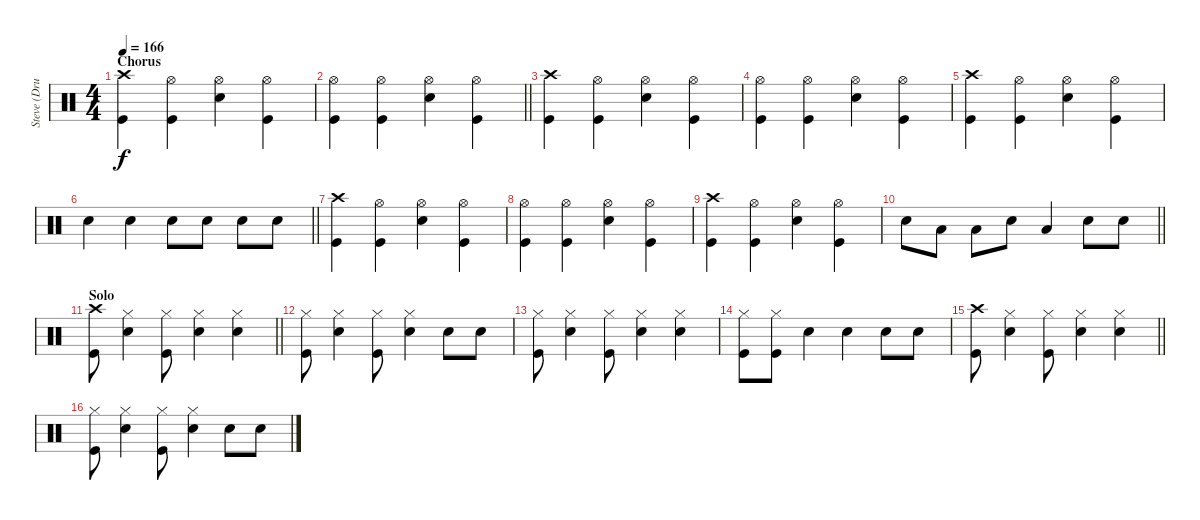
\track ("Steve (Drums)" "Steve (Dru") {instrument percussion}
\staff {score}
\articulation defaults
\ts (4 4)
\section ("" "Chorus")
\tempo 166
\clef neutral
\ks c
("Crash high (hit)" "Kick (hit)").4{dy f} ("Hi-Hat (open)" "Kick (hit)").4 ("Hi-Hat (open)" "Electric Snare (hit)").4 ("Hi-Hat (open)" "Kick (hit)").4 |
\barLineRight lightlight
("Hi-Hat (open)" "Kick (hit)").4 ("Hi-Hat (open)" "Kick (hit)").4 ("Hi-Hat (open)" "Electric Snare (hit)").4 ("Hi-Hat (open)" "Kick (hit)").4 |
("Crash high (hit)" "Kick (hit)").4 ("Hi-Hat (open)" "Kick (hit)").4 ("Hi-Hat (open)" "Electric Snare (hit)").4 ("Hi-Hat (open)" "Kick (hit)").4 |
("Hi-Hat (open)" "Kick (hit)").4 ("Hi-Hat (open)" "Kick (hit)").4 ("Hi-Hat (open)" "Electric Snare (hit)").4 ("Hi-Hat (open)" "Kick (hit)").4 |
("Crash high (hit)" "Kick (hit)").4 ("Hi-Hat (open)" "Kick (hit)").4 ("Hi-Hat (open)" "Electric Snare (hit)").4 ("Hi-Hat (open)" "Kick (hit)").4 |
\barLineRight lightlight "Electric Snare (hit)".4 "Electric Snare (hit)".4 "Electric Snare (hit)".8 "Electric Snare (hit)".8 "Electric Snare (hit)".8 "Electric Snare (hit)".8
|
("Crash high (hit)" "Kick (hit)").4 ("Hi-Hat (open)" "Kick (hit)").4 ("Hi-Hat (open)" "Electric Snare (hit)").4 ("Hi-Hat (open)" "Kick (hit)").4 |
("Hi-Hat (open)" "Kick (hit)").4 ("Hi-Hat (open)" "Kick (hit)").4 ("Hi-Hat (open)" "Electric Snare (hit)").4 ("Hi-Hat (open)" "Kick (hit)").4 |
("Crash high (hit)" "Kick (hit)").4 ("Hi-Hat (open)" "Kick (hit)").4 ("Hi-Hat (open)" "Electric Snare (hit)").4 ("Hi-Hat (open)" "Kick (hit)").4 |
\barLineRight lightlight "Electric Snare (hit)".8 "Low Tom (hit)".8 "Low Tom (hit)".8 "Electric Snare (hit)".8 "Low Tom (hit)".4 "Electric Snare (hit)".8 "Electric Snare (hit)".8
|
\section ("" "Solo")
\barLineRight lightlight
("Crash high (hit)" "Kick (hit)").8 ("Hi-Hat (closed)" "Electric Snare (hit)").4 ("Hi-Hat (closed)" "Kick (hit)").8 ("Hi-Hat (closed)" "Electric Snare (hit)").4 ("Hi-Hat (closed)" "Electric Snare (hit)").4 |
("Hi-Hat (closed)" "Kick (hit)").8 ("Hi-Hat (closed)" "Electric Snare (hit)").4 ("Hi-Hat (closed)" "Kick (hit)").8 ("Hi-Hat (closed)" "Electric Snare (hit)").4 "Electric Snare (hit)".8 "Electric Snare (hit)".8 |
("Hi-Hat (closed)" "Kick (hit)").8 ("Hi-Hat (closed)" "Electric Snare (hit)").4 ("Hi-Hat (closed)" "Kick (hit)").8 ("Hi-Hat (closed)" "Electric Snare (hit)").4 ("Hi-Hat (closed)" "Electric Snare (hit)").4 |
("Hi-Hat (closed)" "Kick (hit)").8 ("Hi-Hat (closed)" "Kick (hit)").8 "Electric Snare (hit)".4 "Electric Snare (hit)".4 "Electric Snare (hit)".8 "Electric Snare (hit)".8 |
\barLineRight lightlight
("Crash high (hit)" "Kick (hit)").8 ("Hi-Hat (closed)" "Electric Snare (hit)").4 ("Hi-Hat (closed)" "Kick (hit)").8 ("Hi-Hat (closed)" "Electric Snare (hit)").4 ("Hi-Hat (closed)" "Electric Snare (hit)").4 |
("Hi-Hat (closed)" "Kick (hit)").8 ("Hi-Hat (closed)" "Electric Snare (hit)").4 ("Hi-Hat (closed)" "Kick (hit)").8 ("Hi-Hat (closed)" "Electric Snare (hit)").4 "Electric Snare (hit)".8 "Electric Snare (hit)".8
